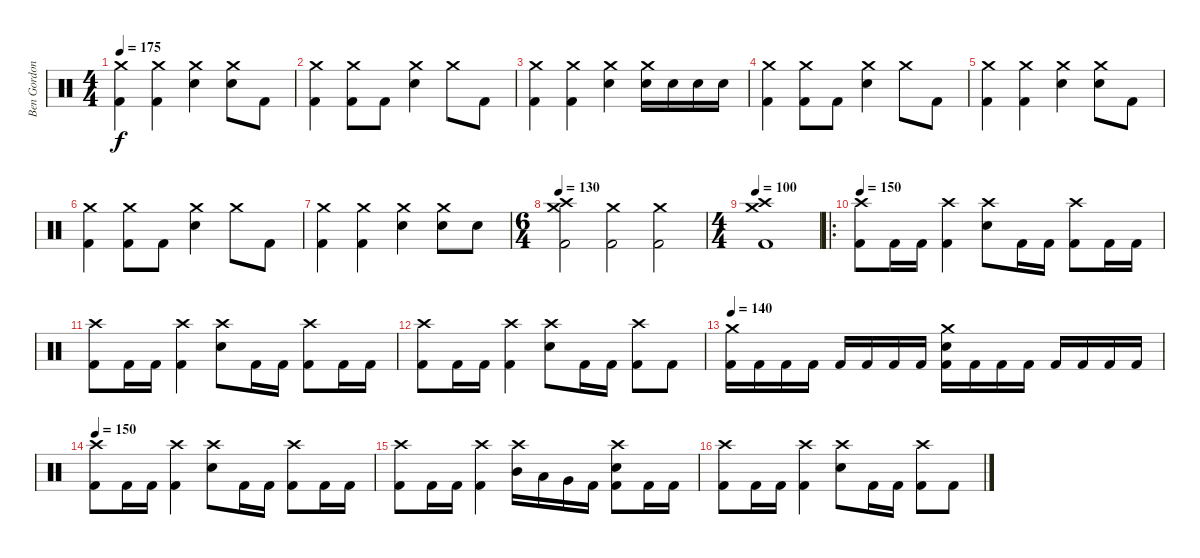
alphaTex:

\track ("Ben Gordon" "Ben Gordon") {instrument percussion}
\staff {score}
\articulation defaults
\ts (4 4)
\tempo 175
\clef neutral
\ks c
("Crash medium (hit)" "Kick (hit) 2").4{dy f} ("Crash medium (hit)" "Kick (hit) 2").4 ("Crash medium (hit)" "Snare (hit) 2").4 ("Crash medium (hit)" "Snare (hit) 2").8 "Kick (hit) 2".8 |
("Crash medium (hit)" "Kick (hit) 2").4 ("Crash medium (hit)" "Kick (hit) 2").8 "Kick (hit) 2".8 ("Crash medium (hit)" "Snare (hit) 2").4 "Crash medium (hit)".8 "Kick (hit) 2".8 |
("Crash medium (hit)" "Kick (hit) 2").4 ("Crash medium (hit)" "Kick (hit) 2").4 ("Crash medium (hit)" "Snare (hit) 2").4 ("Crash medium (hit)" "Snare (hit) 2").16 "Snare (hit) 2".16 "Snare (hit) 2".16 "Snare (hit) 2".16 |
("Crash medium (hit)" "Kick (hit) 2").4 ("Crash medium (hit)" "Kick (hit) 2").8 "Kick (hit) 2".8 ("Crash medium (hit)" "Snare (hit) 2").4 "Crash medium (hit)".8 "Kick (hit) 2".8 |
("Crash medium (hit)" "Kick (hit) 2").4 ("Crash medium (hit)" "Kick (hit) 2").4 ("Crash medium (hit)" "Snare (hit) 2").4 ("Crash medium (hit)" "Snare (hit) 2").8 "Kick (hit) 2".8 |
("Crash medium (hit)" "Kick (hit) 2").4 ("Crash medium (hit)" "Kick (hit) 2").8 "Kick (hit) 2".8 ("Crash medium (hit)" "Snare (hit) 2").4 "Crash medium (hit)".8 "Kick (hit) 2".8 |
("Crash medium (hit)" "Kick (hit) 2").4 ("Crash medium (hit)" "Kick (hit) 2").4 ("Crash medium (hit)" "Snare (hit) 2").4 ("Crash medium (hit)" "Snare (hit) 2").8 "Snare (hit) 2".8 |
\ts (6 4)
\tempo 130
("Crash medium (hit)" "Crash high (hit)" "Kick (hit) 2").2 ("Crash medium (hit)" "Kick (hit) 2").2 ("Crash medium (hit)" "Kick (hit) 2").2 |
\ts (4 4)
\tempo 100
("Crash high (hit)" "Crash medium (hit)" "Kick (hit) 2").1{volume 11} |
\ro
\tempo 150
("Crash high (hit)" "Kick (hit) 2").8{volume 16} "Kick (hit) 2".16 "Kick (hit) 2".16 ("Crash high (hit)" "Kick (hit) 2").4 ("Crash high (hit)" "Snare (hit) 2").8 "Kick (hit) 2".16 "Kick (hit) 2".16 ("Crash high (hit)" "Kick (hit) 2").8 "Kick (hit) 2".16 "Kick (hit) 2".16 |
("Crash high (hit)" "Kick (hit) 2").8 "Kick (hit) 2".16 "Kick (hit) 2".16 ("Crash high (hit)" "Kick (hit) 2").4 ("Crash high (hit)" "Snare (hit) 2").8 "Kick (hit) 2".16 "Kick (hit) 2".16 ("Crash high (hit)" "Kick (hit) 2").8 "Kick (hit) 2".16 "Kick (hit) 2".16 |
("Crash high (hit)" "Kick (hit) 2").8 "Kick (hit) 2".16 "Kick (hit) 2".16 ("Crash high (hit)" "Kick (hit) 2").4 ("Crash high (hit)" "Snare (hit) 2").8 "Kick (hit) 2".16 "Kick (hit) 2".16 ("Crash high (hit)" "Kick (hit) 2").8 "Kick (hit) 2".8 |
\tempo 140
("Crash medium (hit)" "Kick (hit) 2").16 "Kick (hit) 2".16 "Kick (hit) 2".16 "Kick (hit) 2".16 "Kick (hit) 2".16 "Kick (hit) 2".16 "Kick (hit) 2".16 "Kick (hit) 2".16 ("Crash medium (hit)" "Snare (hit) 2" "Kick (hit) 2").16 "Kick (hit) 2".16 "Kick (hit) 2".16 "Kick (hit) 2".16 "Kick (hit) 2".16 "Kick (hit) 2".16 "Kick (hit) 2".16 "Kick (hit) 2".16 |
\tempo 150
("Crash high (hit)" "Kick (hit) 2").8{volume 16} "Kick (hit) 2".16 "Kick (hit) 2".16 ("Crash high (hit)" "Kick (hit) 2").4 ("Crash high (hit)" "Snare (hit) 2").8 "Kick (hit) 2".16 "Kick (hit) 2".16 ("Crash high (hit)" "Kick (hit) 2").8 "Kick (hit) 2".16 "Kick (hit) 2".16 |
("Crash high (hit)" "Kick (hit) 2").8 "Kick (hit) 2".16 "Kick (hit) 2".16 ("Crash high (hit)" "Kick (hit) 2").4 ("Crash high (hit)" "Mid Tom (hit)").16 "Low Tom (hit)".16 "Very Low Tom (hit)".16 "Kick (hit) 2".16 ("Crash high (hit)" "Snare (hit) 2" "Kick (hit) 2").8 "Kick (hit) 2".16 "Kick (hit) 2".16 |
("Crash high (hit)" "Kick (hit) 2").8 "Kick (hit) 2".16 "Kick (hit) 2".16 ("Crash high (hit)" "Kick (hit) 2").4 ("Crash high (hit)" "Snare (hit) 2").8 "Kick (hit) 2".16 "Kick (hit) 2".16 ("Crash high (hit)" "Kick (hit) 2").8 "Kick (hit) 2".8
